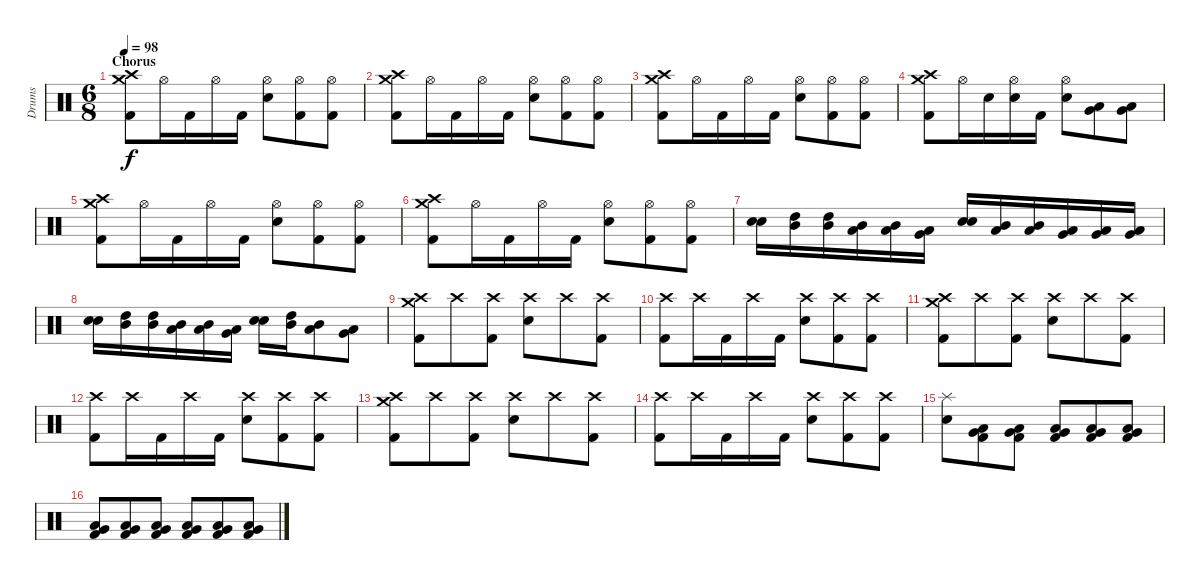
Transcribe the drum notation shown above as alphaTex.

\track ("Drums" "Drums") {instrument percussion}
\staff {score}
\articulation defaults
\ts (6 8)
\section ("" "Chorus")
\tempo 98
\clef neutral
\ks c
("Crash high (hit)" "Crash medium (hit)" "Kick (hit) 2").8{dy f} "Hi-Hat (open)".16 "Kick (hit) 2".16 "Hi-Hat (open)".16 "Kick (hit) 2".16 ("Hi-Hat (open)" "Electric Snare (hit)").8 ("Hi-Hat (open)" "Kick (hit) 2").8 ("Hi-Hat (open)" "Kick (hit) 2").8 |
("Crash high (hit)" "Crash medium (hit)" "Kick (hit) 2").8 "Hi-Hat (open)".16 "Kick (hit) 2".16 "Hi-Hat (open)".16 "Kick (hit) 2".16 ("Hi-Hat (open)" "Electric Snare (hit)").8 ("Hi-Hat (open)" "Kick (hit) 2").8 ("Hi-Hat (open)" "Kick (hit) 2").8 |
("Crash high (hit)" "Crash medium (hit)" "Kick (hit) 2").8 "Hi-Hat (open)".16 "Kick (hit) 2".16 "Hi-Hat (open)".16 "Kick (hit) 2".16 ("Hi-Hat (open)" "Electric Snare (hit)").8 ("Hi-Hat (open)" "Kick (hit) 2").8 ("Hi-Hat (open)" "Kick (hit) 2").8 |
("Crash high (hit)" "Crash medium (hit)" "Kick (hit) 2").8 "Hi-Hat (open)".16 "Electric Snare (hit)".16 ("Hi-Hat (open)" "Electric Snare (hit)").16 "Kick (hit) 2".16 ("Hi-Hat (open)" "Electric Snare (hit)").8 ("Low Tom (hit)" "Very Low Tom (hit)").8 ("Very Low Tom (hit)" "Low Floor Tom (hit)").8 |
("Crash high (hit)" "Crash medium (hit)" "Kick (hit) 2").8 "Hi-Hat (open)".16 "Kick (hit) 2".16 "Hi-Hat (open)".16 "Kick (hit) 2".16 ("Hi-Hat (open)" "Electric Snare (hit)").8 ("Hi-Hat (open)" "Kick (hit) 2").8 ("Hi-Hat (open)" "Kick (hit) 2").8 |
("Crash high (hit)" "Crash medium (hit)" "Kick (hit) 2").8 "Hi-Hat (open)".16 "Kick (hit) 2".16 "Hi-Hat (open)".16 "Kick (hit) 2".16 ("Hi-Hat (open)" "Electric Snare (hit)").8 ("Hi-Hat (open)" "Kick (hit) 2").8 ("Hi-Hat (open)" "Kick (hit) 2").8 |
("Electric Snare (hit)" "Electric Snare (hit)").16 ("High Tom (hit)" "Mid Tom (hit)").16 ("High Tom (hit)" "Mid Tom (hit)").16 ("Mid Tom (hit)" "Low Tom (hit)").16 ("Mid Tom (hit)" "Low Tom (hit)").16 ("Low Tom (hit)" "Very Low Tom (hit)").16 ("Electric Snare (hit)" "Electric Snare (hit)").16 ("Mid Tom (hit)" "Low Tom (hit)").16 ("Mid Tom (hit)" "Low Tom (hit)").16 ("Low Tom (hit)" "Very Low Tom (hit)").16 ("Low Tom (hit)" "Very Low Tom (hit)").16 ("Very Low Tom (hit)" "Low Floor Tom (hit)").16 |
("Electric Snare (hit)" "Electric Snare (hit)").16 ("High Tom (hit)" "Mid Tom (hit)").16 ("High Tom (hit)" "Mid Tom (hit)").16 ("Mid Tom (hit)" "Low Tom (hit)").16 ("Mid Tom (hit)" "Low Tom (hit)").16 ("Low Tom (hit)" "Very Low Tom (hit)").16 ("Electric Snare (hit)" "Electric Snare (hit)").16 ("High Tom (hit)" "Mid Tom (hit)").16 ("Mid Tom (hit)" "Low Tom (hit)").8 ("Low Tom (hit)" "Very Low Tom (hit)").8 |
("Crash high (hit)" "Crash medium (hit)" "Kick (hit) 2").8 "Crash high (hit)".8 ("Crash high (hit)" "Kick (hit) 2").8 ("Crash high (hit)" "Electric Snare (hit)").8 "Crash high (hit)".8 ("Crash high (hit)" "Kick (hit) 2").8 |
("Crash high (hit)" "Kick (hit) 2").8 "Crash high (hit)".16 "Kick (hit) 2".16 "Crash high (hit)".16 "Kick (hit) 2".16 ("Crash high (hit)" "Electric Snare (hit)").8 ("Crash high (hit)" "Kick (hit) 2").8 ("Crash high (hit)" "Kick (hit) 2").8 |
("Crash high (hit)" "Crash medium (hit)" "Kick (hit) 2").8 "Crash high (hit)".8 ("Crash high (hit)" "Kick (hit) 2").8 ("Crash high (hit)" "Electric Snare (hit)").8 "Crash high (hit)".8 ("Crash high (hit)" "Kick (hit) 2").8 |
("Crash high (hit)" "Kick (hit) 2").8 "Crash high (hit)".16 "Kick (hit) 2".16 "Crash high (hit)".16 "Kick (hit) 2".16 ("Crash high (hit)" "Electric Snare (hit)").8 ("Crash high (hit)" "Kick (hit) 2").8 ("Crash high (hit)" "Kick (hit) 2").8 |
("Crash high (hit)" "Crash medium (hit)" "Kick (hit) 2").8 "Crash high (hit)".8 ("Crash high (hit)" "Kick (hit) 2").8 ("Crash high (hit)" "Electric Snare (hit)").8 "Crash high (hit)".8 ("Crash high (hit)" "Kick (hit) 2").8 |
("Crash high (hit)" "Kick (hit) 2").8 "Crash high (hit)".16 "Kick (hit) 2".16 "Crash high (hit)".16 "Kick (hit) 2".16 ("Crash high (hit)" "Electric Snare (hit)").8 ("Crash high (hit)" "Kick (hit) 2").8 ("Crash high (hit)" "Kick (hit) 2").8 |
("Splash (hit)" "Electric Snare (hit)").8{volume 10} ("Low Tom (hit)" "Very Low Tom (hit)" "Kick (hit) 2").8{volume 16} ("Low Tom (hit)" "Very Low Tom (hit)" "Kick (hit) 2").8 ("Low Tom (hit)" "Very Low Tom (hit)" "Kick (hit) 2").8 ("Low Tom (hit)" "Very Low Tom (hit)" "Kick (hit) 2").8 ("Low Tom (hit)" "Very Low Tom (hit)" "Kick (hit) 2").8 |
("Low Tom (hit)" "Very Low Tom (hit)" "Kick (hit) 2").8 ("Low Tom (hit)" "Very Low Tom (hit)" "Kick (hit) 2").8 ("Low Tom (hit)" "Very Low Tom (hit)" "Kick (hit) 2").8 ("Low Tom (hit)" "Very Low Tom (hit)" "Kick (hit) 2").8 ("Low Tom (hit)" "Very Low Tom (hit)" "Kick (hit) 2").8 ("Low Tom (hit)" "Very Low Tom (hit)" "Kick (hit) 2").8
